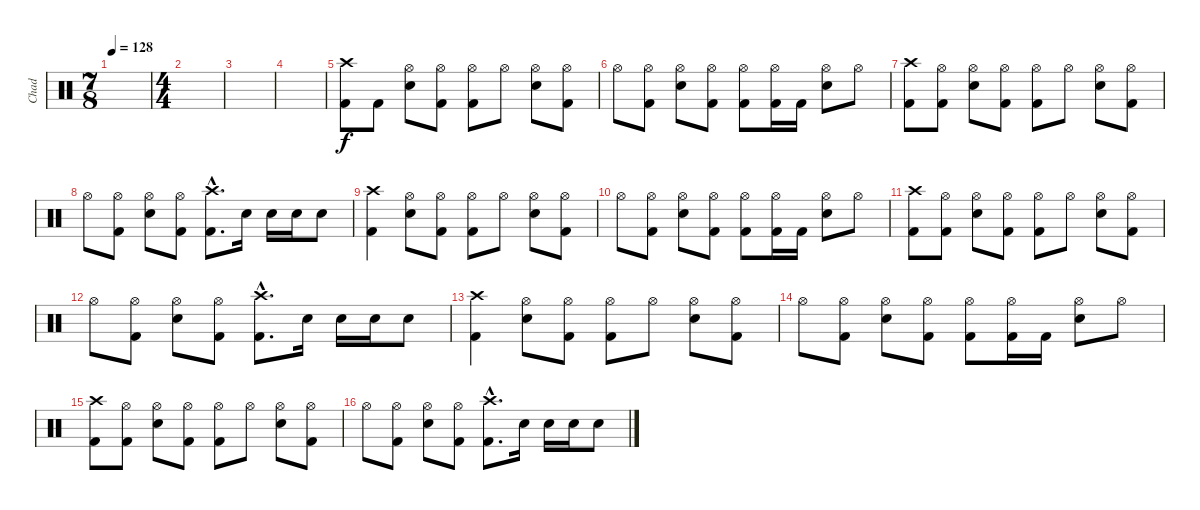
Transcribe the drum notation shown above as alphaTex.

\track ("Chad" "Chad") {instrument percussion}
\staff {score}
\articulation defaults
\ts (7 8)
\tempo 128
\clef neutral
\ks c
|
\ts (4 4)
|
|
|
("Crash high (hit)" "Kick (hit) 2").8 "Kick (hit) 2".8 ("Hi-Hat (open)" "Snare (hit) 2").8 ("Hi-Hat (open)" "Kick (hit) 2").8 ("Hi-Hat (open)" "Kick (hit) 2").8 "Hi-Hat (open)".8 ("Hi-Hat (open)" "Snare (hit) 2").8 ("Hi-Hat (open)" "Kick (hit) 2").8 |
"Hi-Hat (open)".8 ("Hi-Hat (open)" "Kick (hit) 2").8 ("Hi-Hat (open)" "Snare (hit) 2").8 ("Hi-Hat (open)" "Kick (hit) 2").8 ("Hi-Hat (open)" "Kick (hit) 2").8 ("Hi-Hat (open)" "Kick (hit) 2").16 "Kick (hit) 2".16 ("Hi-Hat (open)" "Snare (hit) 2").8 "Hi-Hat (open)".8 |
("Crash high (hit)" "Kick (hit) 2").8 ("Hi-Hat (open)" "Kick (hit) 2").8 ("Hi-Hat (open)" "Snare (hit) 2").8 ("Hi-Hat (open)" "Kick (hit) 2").8 ("Hi-Hat (open)" "Kick (hit) 2").8 "Hi-Hat (open)".8 ("Hi-Hat (open)" "Snare (hit) 2").8 ("Hi-Hat (open)" "Kick (hit) 2").8 |
"Hi-Hat (open)".8 ("Hi-Hat (open)" "Kick (hit) 2").8 ("Hi-Hat (open)" "Snare (hit) 2").8 ("Hi-Hat (open)" "Kick (hit) 2").8 ("Crash high (hit)"{hac} "Kick (hit) 2"{hac}).8{d} "Snare (hit) 2".16 "Snare (hit) 2".16 "Snare (hit) 2".16 "Snare (hit) 2".8 |
("Crash high (hit)" "Kick (hit) 2").4 ("Hi-Hat (open)" "Snare (hit) 2").8 ("Hi-Hat (open)" "Kick (hit) 2").8 ("Hi-Hat (open)" "Kick (hit) 2").8 "Hi-Hat (open)".8 ("Hi-Hat (open)" "Snare (hit) 2").8 ("Hi-Hat (open)" "Kick (hit) 2").8 |
"Hi-Hat (open)".8 ("Hi-Hat (open)" "Kick (hit) 2").8 ("Hi-Hat (open)" "Snare (hit) 2").8 ("Hi-Hat (open)" "Kick (hit) 2").8 ("Hi-Hat (open)" "Kick (hit) 2").8 ("Hi-Hat (open)" "Kick (hit) 2").16 "Kick (hit) 2".16 ("Hi-Hat (open)" "Snare (hit) 2").8 "Hi-Hat (open)".8 |
("Crash high (hit)" "Kick (hit) 2").8 ("Hi-Hat (open)" "Kick (hit) 2").8 ("Hi-Hat (open)" "Snare (hit) 2").8 ("Hi-Hat (open)" "Kick (hit) 2").8 ("Hi-Hat (open)" "Kick (hit) 2").8 "Hi-Hat (open)".8 ("Hi-Hat (open)" "Snare (hit) 2").8 ("Hi-Hat (open)" "Kick (hit) 2").8 |
"Hi-Hat (open)".8 ("Hi-Hat (open)" "Kick (hit) 2").8 ("Hi-Hat (open)" "Snare (hit) 2").8 ("Hi-Hat (open)" "Kick (hit) 2").8 ("Crash high (hit)"{hac} "Kick (hit) 2"{hac}).8{d} "Snare (hit) 2".16 "Snare (hit) 2".16 "Snare (hit) 2".16 "Snare (hit) 2".8 |
("Crash high (hit)" "Kick (hit) 2").4 ("Hi-Hat (open)" "Snare (hit) 2").8 ("Hi-Hat (open)" "Kick (hit) 2").8 ("Hi-Hat (open)" "Kick (hit) 2").8 "Hi-Hat (open)".8 ("Hi-Hat (open)" "Snare (hit) 2").8 ("Hi-Hat (open)" "Kick (hit) 2").8 |
"Hi-Hat (open)".8 ("Hi-Hat (open)" "Kick (hit) 2").8 ("Hi-Hat (open)" "Snare (hit) 2").8 ("Hi-Hat (open)" "Kick (hit) 2").8 ("Hi-Hat (open)" "Kick (hit) 2").8 ("Hi-Hat (open)" "Kick (hit) 2").16 "Kick (hit) 2".16 ("Hi-Hat (open)" "Snare (hit) 2").8 "Hi-Hat (open)".8 |
("Crash high (hit)" "Kick (hit) 2").8 ("Hi-Hat (open)" "Kick (hit) 2").8 ("Hi-Hat (open)" "Snare (hit) 2").8 ("Hi-Hat (open)" "Kick (hit) 2").8 ("Hi-Hat (open)" "Kick (hit) 2").8 "Hi-Hat (open)".8 ("Hi-Hat (open)" "Snare (hit) 2").8 ("Hi-Hat (open)" "Kick (hit) 2").8 |
"Hi-Hat (open)".8 ("Hi-Hat (open)" "Kick (hit) 2").8 ("Hi-Hat (open)" "Snare (hit) 2").8 ("Hi-Hat (open)" "Kick (hit) 2").8 ("Crash high (hit)"{hac} "Kick (hit) 2"{hac}).8{d} "Snare (hit) 2".16 "Snare (hit) 2".16 "Snare (hit) 2".16 "Snare (hit) 2".8
